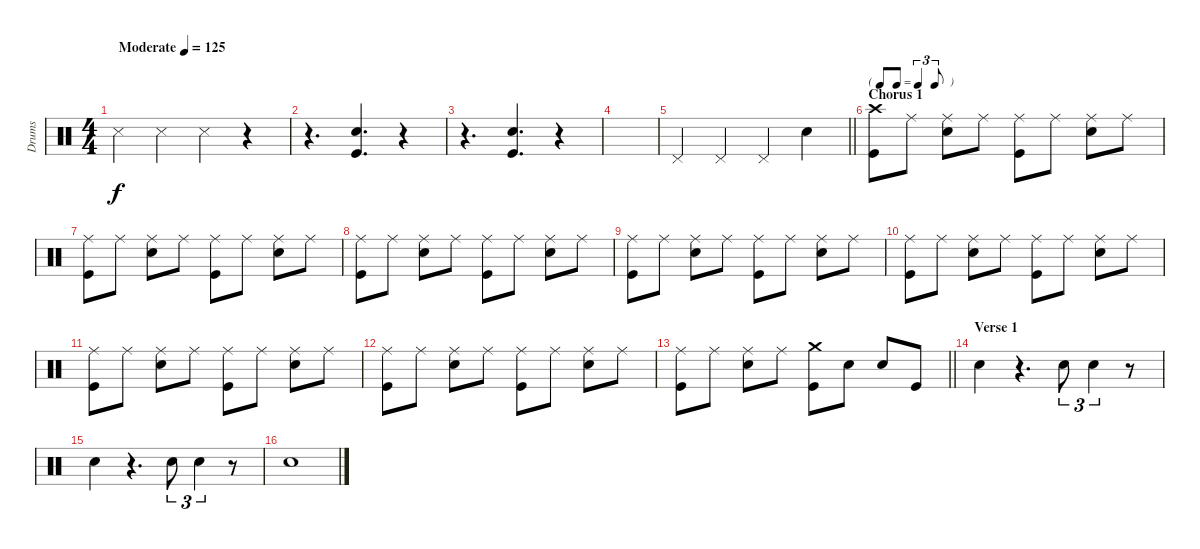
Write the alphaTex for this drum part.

\track ("Drums" "Drums") {instrument percussion}
\staff {score}
\articulation defaults
\ts (4 4)
\tempo (125 "Moderate")
\clef neutral
\ks aminor "Snare (side stick) 3".4{dy f} "Snare (side stick) 3".4 "Snare (side stick) 3".4
r.4 |
r.4{d} ("Snare (hit) 2" "Kick (hit)").4{d} r.4 |
r.4{d} ("Snare (hit) 2" "Kick (hit)").4{d} r.4 |
|
\barLineRight lightlight "Pedal Hi-Hat (hit)".4 "Pedal Hi-Hat (hit)".4 "Pedal Hi-Hat (hit)".4 "Snare (hit) 2".4
|
\tf triplet8th
\section ("" "Chorus 1")
("Crash high (hit)" "Kick (hit)").8 "Ride (middle)".8 ("Ride (middle)" "Snare (hit) 2").8 "Ride (middle)".8 ("Ride (middle)" "Kick (hit)").8 "Ride (middle)".8 ("Ride (middle)" "Snare (hit) 2").8 "Ride (middle)".8 |
("Ride (middle)" "Kick (hit)").8 "Ride (middle)".8 ("Ride (middle)" "Snare (hit) 2").8 "Ride (middle)".8 ("Ride (middle)" "Kick (hit)").8 "Ride (middle)".8 ("Ride (middle)" "Snare (hit) 2").8 "Ride (middle)".8 |
("Ride (middle)" "Kick (hit)").8 "Ride (middle)".8 ("Ride (middle)" "Snare (hit) 2").8 "Ride (middle)".8 ("Ride (middle)" "Kick (hit)").8 "Ride (middle)".8 ("Ride (middle)" "Snare (hit) 2").8 "Ride (middle)".8 |
("Ride (middle)" "Kick (hit)").8 "Ride (middle)".8 ("Ride (middle)" "Snare (hit) 2").8 "Ride (middle)".8 ("Ride (middle)" "Kick (hit)").8 "Ride (middle)".8 ("Ride (middle)" "Snare (hit) 2").8 "Ride (middle)".8 |
("Ride (middle)" "Kick (hit)").8 "Ride (middle)".8 ("Ride (middle)" "Snare (hit) 2").8 "Ride (middle)".8 ("Ride (middle)" "Kick (hit)").8 "Ride (middle)".8 ("Ride (middle)" "Snare (hit) 2").8 "Ride (middle)".8 |
("Ride (middle)" "Kick (hit)").8 "Ride (middle)".8 ("Ride (middle)" "Snare (hit) 2").8 "Ride (middle)".8 ("Ride (middle)" "Kick (hit)").8 "Ride (middle)".8 ("Ride (middle)" "Snare (hit) 2").8 "Ride (middle)".8 |
("Ride (middle)" "Kick (hit)").8 "Ride (middle)".8 ("Ride (middle)" "Snare (hit) 2").8 "Ride (middle)".8 ("Ride (middle)" "Kick (hit)").8 "Ride (middle)".8 ("Ride (middle)" "Snare (hit) 2").8 "Ride (middle)".8 |
\barLineRight lightlight
("Ride (middle)" "Kick (hit)").8 "Ride (middle)".8 ("Ride (middle)" "Snare (hit) 2").8 "Ride (middle)".8 ("Crash medium (hit)" "Kick (hit)").8 "Snare (hit) 2".8 "Snare (hit) 2".8 "Kick (hit)".8 |
\section ("" "Verse 1")
"Snare (hit) 2".4 r.4{d} "Snare (hit) 2".8{tu (3 2)} "Snare (hit) 2".4{tu (3 2)} r.8 |
"Snare (hit) 2".4 r.4{d} "Snare (hit) 2".8{tu (3 2)} "Snare (hit) 2".4{tu (3 2)} r.8 |
"Snare (hit) 2".1
